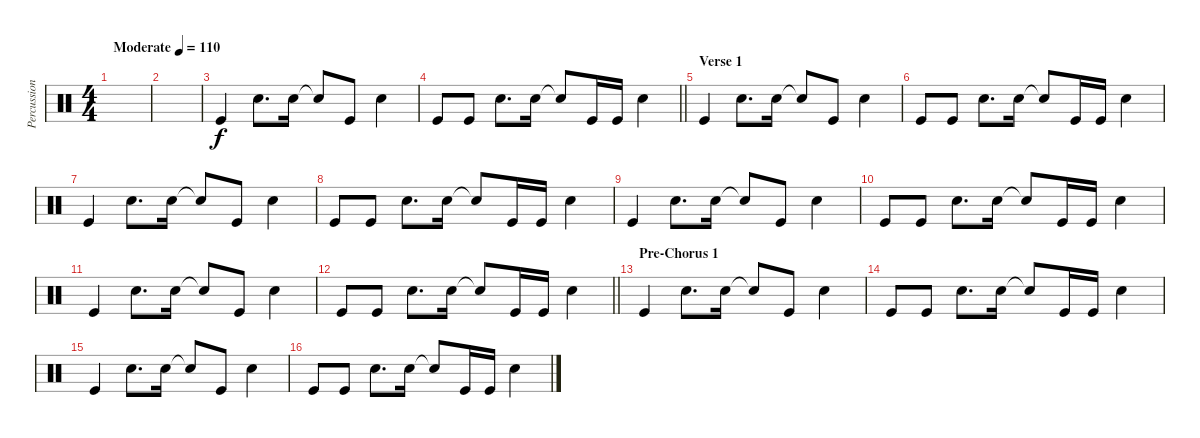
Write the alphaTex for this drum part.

\track ("Percussion" "Percussion") {instrument percussion}
\staff {score}
\articulation defaults
\ts (4 4)
\tempo (110 "Moderate")
\clef neutral
\ks c
|
|
"Kick (hit)".4 "Snare (hit) 2".8{d} "Snare (hit) 2".16 "Snare (hit) 2"{t}.8 "Kick (hit)".8 "Snare (hit) 2".4 |
\barLineRight lightlight "Kick (hit)".8 "Kick (hit)".8 "Snare (hit) 2".8{d} "Snare (hit) 2".16 "Snare (hit) 2"{t}.8 "Kick (hit)".16 "Kick (hit)".16 "Snare (hit) 2".4
|
\section ("" "Verse 1")
"Kick (hit)".4 "Snare (hit) 2".8{d} "Snare (hit) 2".16 "Snare (hit) 2"{t}.8 "Kick (hit)".8 "Snare (hit) 2".4 |
"Kick (hit)".8 "Kick (hit)".8 "Snare (hit) 2".8{d} "Snare (hit) 2".16 "Snare (hit) 2"{t}.8 "Kick (hit)".16 "Kick (hit)".16 "Snare (hit) 2".4 |
"Kick (hit)".4 "Snare (hit) 2".8{d} "Snare (hit) 2".16 "Snare (hit) 2"{t}.8 "Kick (hit)".8 "Snare (hit) 2".4 |
"Kick (hit)".8 "Kick (hit)".8 "Snare (hit) 2".8{d} "Snare (hit) 2".16 "Snare (hit) 2"{t}.8 "Kick (hit)".16 "Kick (hit)".16 "Snare (hit) 2".4 |
"Kick (hit)".4 "Snare (hit) 2".8{d} "Snare (hit) 2".16 "Snare (hit) 2"{t}.8 "Kick (hit)".8 "Snare (hit) 2".4 |
"Kick (hit)".8 "Kick (hit)".8 "Snare (hit) 2".8{d} "Snare (hit) 2".16 "Snare (hit) 2"{t}.8 "Kick (hit)".16 "Kick (hit)".16 "Snare (hit) 2".4 |
"Kick (hit)".4 "Snare (hit) 2".8{d} "Snare (hit) 2".16 "Snare (hit) 2"{t}.8 "Kick (hit)".8 "Snare (hit) 2".4 |
\barLineRight lightlight "Kick (hit)".8 "Kick (hit)".8 "Snare (hit) 2".8{d} "Snare (hit) 2".16 "Snare (hit) 2"{t}.8 "Kick (hit)".16 "Kick (hit)".16 "Snare (hit) 2".4
|
\section ("" "Pre-Chorus 1")
"Kick (hit)".4 "Snare (hit) 2".8{d} "Snare (hit) 2".16 "Snare (hit) 2"{t}.8 "Kick (hit)".8 "Snare (hit) 2".4 |
"Kick (hit)".8 "Kick (hit)".8 "Snare (hit) 2".8{d} "Snare (hit) 2".16 "Snare (hit) 2"{t}.8 "Kick (hit)".16 "Kick (hit)".16 "Snare (hit) 2".4 |
"Kick (hit)".4 "Snare (hit) 2".8{d} "Snare (hit) 2".16 "Snare (hit) 2"{t}.8 "Kick (hit)".8 "Snare (hit) 2".4 |
"Kick (hit)".8 "Kick (hit)".8 "Snare (hit) 2".8{d} "Snare (hit) 2".16 "Snare (hit) 2"{t}.8 "Kick (hit)".16 "Kick (hit)".16 "Snare (hit) 2".4
